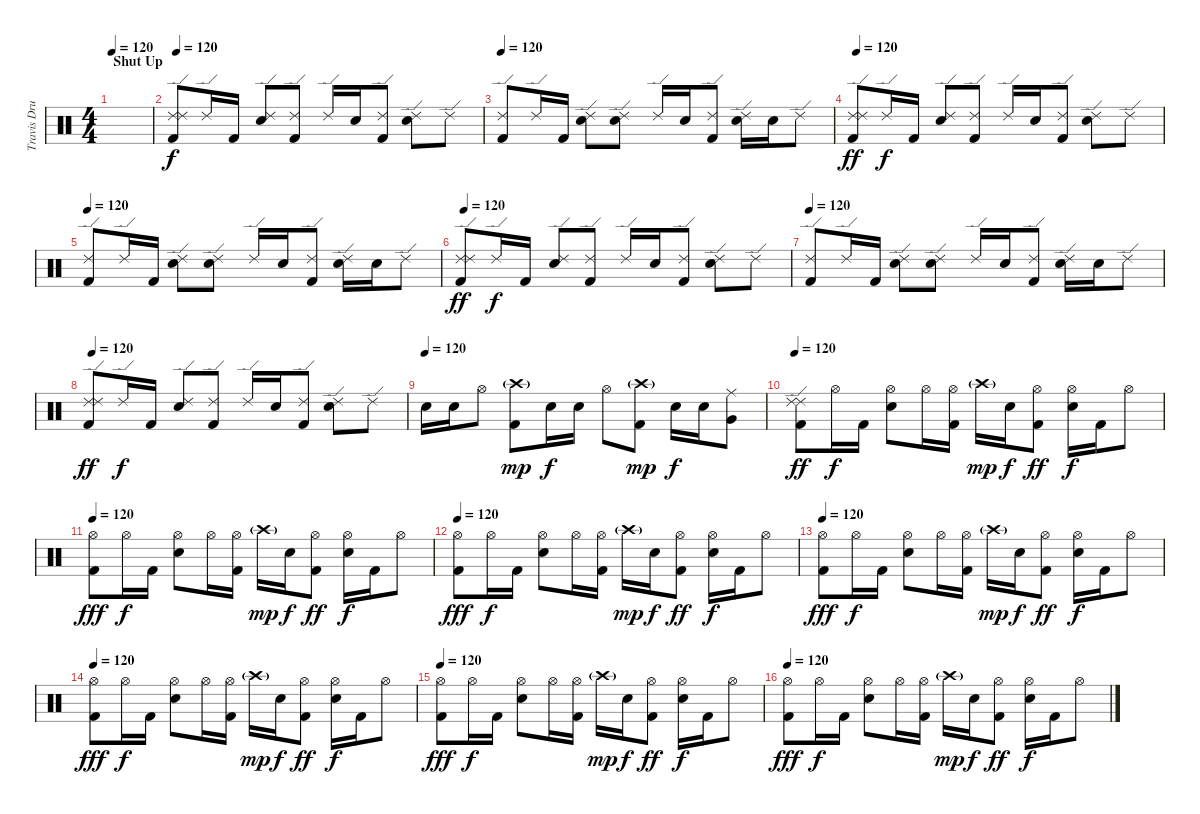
\track ("Travis Drums" "Travis Dru") {instrument percussion}
\staff {score}
\articulation defaults
\ts (4 4)
\section ("" "Shut Up")
\tempo 120
\clef neutral
\ks c
|
\tempo 120
("Ride (edge) 2" "Ride (edge) 2" "Kick (hit) 2").8 "Ride (edge) 2".16{dy f} "Kick (hit) 2".16 ("Ride (edge) 2" "Electric Snare (hit)").8 ("Ride (edge) 2" "Kick (hit) 2").8 "Ride (edge) 2".16 "Electric Snare (hit)".16 ("Ride (edge) 2" "Kick (hit) 2").8 ("Ride (edge) 2" "Electric Snare (hit)").8 "Ride (edge) 2".8 |
\tempo 120
("Ride (edge) 2" "Kick (hit) 2").8 "Ride (edge) 2".16 "Kick (hit) 2".16 ("Ride (edge) 2" "Electric Snare (hit)").8 ("Ride (edge) 2" "Electric Snare (hit)").8 "Ride (edge) 2".16 "Electric Snare (hit)".16 ("Ride (edge) 2" "Kick (hit) 2").8 ("Ride (edge) 2" "Electric Snare (hit)").16 "Electric Snare (hit)".16 "Ride (edge) 2".8 |
\tempo 120
("Ride (edge) 2" "Ride (edge) 2" "Kick (hit) 2").8{dy ff} "Ride (edge) 2".16{dy f} "Kick (hit) 2".16 ("Ride (edge) 2" "Electric Snare (hit)").8 ("Ride (edge) 2" "Kick (hit) 2").8 "Ride (edge) 2".16 "Electric Snare (hit)".16 ("Ride (edge) 2" "Kick (hit) 2").8 ("Ride (edge) 2" "Electric Snare (hit)").8 "Ride (edge) 2".8 |
\tempo 120
("Ride (edge) 2" "Kick (hit) 2").8 "Ride (edge) 2".16 "Kick (hit) 2".16 ("Ride (edge) 2" "Electric Snare (hit)").8 ("Ride (edge) 2" "Electric Snare (hit)").8 "Ride (edge) 2".16 "Electric Snare (hit)".16 ("Ride (edge) 2" "Kick (hit) 2").8 ("Ride (edge) 2" "Electric Snare (hit)").16 "Electric Snare (hit)".16 "Ride (edge) 2".8 |
\tempo 120
("Ride (edge) 2" "Ride (edge) 2" "Kick (hit) 2").8{dy ff} "Ride (edge) 2".16{dy f} "Kick (hit) 2".16 ("Ride (edge) 2" "Electric Snare (hit)").8 ("Ride (edge) 2" "Kick (hit) 2").8 "Ride (edge) 2".16 "Electric Snare (hit)".16 ("Ride (edge) 2" "Kick (hit) 2").8 ("Ride (edge) 2" "Electric Snare (hit)").8 "Ride (edge) 2".8 |
\tempo 120
("Ride (edge) 2" "Kick (hit) 2").8 "Ride (edge) 2".16 "Kick (hit) 2".16 ("Ride (edge) 2" "Electric Snare (hit)").8 ("Ride (edge) 2" "Electric Snare (hit)").8 "Ride (edge) 2".16 "Electric Snare (hit)".16 ("Ride (edge) 2" "Kick (hit) 2").8 ("Ride (edge) 2" "Electric Snare (hit)").16 "Electric Snare (hit)".16 "Ride (edge) 2".8 |
\tempo 120
("Ride (edge) 2" "Ride (edge) 2" "Kick (hit) 2").8{dy ff} "Ride (edge) 2".16{dy f} "Kick (hit) 2".16 ("Ride (edge) 2" "Electric Snare (hit)").8 ("Ride (edge) 2" "Kick (hit) 2").8 "Ride (edge) 2".16 "Electric Snare (hit)".16 ("Ride (edge) 2" "Kick (hit) 2").8 ("Ride (edge) 2" "Electric Snare (hit)").8 "Ride (edge) 2".8 |
\tempo (120)
"Electric Snare (hit)".16 "Electric Snare (hit)".16 "Hi-Hat (open)".8 ("Crash high (hit)"{g} "Kick (hit) 2").8{dy mp} "Electric Snare (hit)".16{dy f} "Electric Snare (hit)".16 "Hi-Hat (open)".8 ("Crash high (hit)"{g} "Kick (hit) 2").8{dy mp} "Electric Snare (hit)".16{dy f} "Electric Snare (hit)".16 ("Ride (middle)" "Very Low Tom (hit)").8 |
\tempo 120
("Ride (edge) 2" "Ride (edge) 2" "Kick (hit) 2").8{dy ff} "Hi-Hat (open)".16{dy f} "Kick (hit) 2".16 ("Hi-Hat (open)" "Electric Snare (hit)").8 "Hi-Hat (open)".16 ("Hi-Hat (open)" "Kick (hit) 2").16 "Crash high (hit)"{g}.16{dy mp} "Electric Snare (hit)".16{dy f} ("Hi-Hat (open)" "Kick (hit) 2").8{dy ff} ("Hi-Hat (open)" "Electric Snare (hit)").16{dy f} "Kick (hit) 2".16 "Hi-Hat (open)".8 |
\tempo 120
("Hi-Hat (open)" "Kick (hit) 2").8{dy fff} "Hi-Hat (open)".16{dy f} "Kick (hit) 2".16 ("Hi-Hat (open)" "Electric Snare (hit)").8 "Hi-Hat (open)".16 ("Hi-Hat (open)" "Kick (hit) 2").16 "Crash high (hit)"{g}.16{dy mp} "Electric Snare (hit)".16{dy f} ("Hi-Hat (open)" "Kick (hit) 2").8{dy ff} ("Hi-Hat (open)" "Electric Snare (hit)").16{dy f} "Kick (hit) 2".16 "Hi-Hat (open)".8 |
\tempo 120
("Hi-Hat (open)" "Kick (hit) 2").8{dy fff} "Hi-Hat (open)".16{dy f} "Kick (hit) 2".16 ("Hi-Hat (open)" "Electric Snare (hit)").8 "Hi-Hat (open)".16 ("Hi-Hat (open)" "Kick (hit) 2").16 "Crash high (hit)"{g}.16{dy mp} "Electric Snare (hit)".16{dy f} ("Hi-Hat (open)" "Kick (hit) 2").8{dy ff} ("Hi-Hat (open)" "Electric Snare (hit)").16{dy f} "Kick (hit) 2".16 "Hi-Hat (open)".8 |
\tempo 120
("Hi-Hat (open)" "Kick (hit) 2").8{dy fff} "Hi-Hat (open)".16{dy f} "Kick (hit) 2".16 ("Hi-Hat (open)" "Electric Snare (hit)").8 "Hi-Hat (open)".16 ("Hi-Hat (open)" "Kick (hit) 2").16 "Crash high (hit)"{g}.16{dy mp} "Electric Snare (hit)".16{dy f} ("Hi-Hat (open)" "Kick (hit) 2").8{dy ff} ("Hi-Hat (open)" "Electric Snare (hit)").16{dy f} "Kick (hit) 2".16 "Hi-Hat (open)".8 |
\tempo 120
("Hi-Hat (open)" "Kick (hit) 2").8{dy fff} "Hi-Hat (open)".16{dy f} "Kick (hit) 2".16 ("Hi-Hat (open)" "Electric Snare (hit)").8 "Hi-Hat (open)".16 ("Hi-Hat (open)" "Kick (hit) 2").16 "Crash high (hit)"{g}.16{dy mp} "Electric Snare (hit)".16{dy f} ("Hi-Hat (open)" "Kick (hit) 2").8{dy ff} ("Hi-Hat (open)" "Electric Snare (hit)").16{dy f} "Kick (hit) 2".16 "Hi-Hat (open)".8 |
\tempo 120
("Hi-Hat (open)" "Kick (hit) 2").8{dy fff} "Hi-Hat (open)".16{dy f} "Kick (hit) 2".16 ("Hi-Hat (open)" "Electric Snare (hit)").8 "Hi-Hat (open)".16 ("Hi-Hat (open)" "Kick (hit) 2").16 "Crash high (hit)"{g}.16{dy mp} "Electric Snare (hit)".16{dy f} ("Hi-Hat (open)" "Kick (hit) 2").8{dy ff} ("Hi-Hat (open)" "Electric Snare (hit)").16{dy f} "Kick (hit) 2".16 "Hi-Hat (open)".8 |
\tempo 120
("Hi-Hat (open)" "Kick (hit) 2").8{dy fff} "Hi-Hat (open)".16{dy f} "Kick (hit) 2".16 ("Hi-Hat (open)" "Electric Snare (hit)").8 "Hi-Hat (open)".16 ("Hi-Hat (open)" "Kick (hit) 2").16 "Crash high (hit)"{g}.16{dy mp} "Electric Snare (hit)".16{dy f} ("Hi-Hat (open)" "Kick (hit) 2").8{dy ff} ("Hi-Hat (open)" "Electric Snare (hit)").16{dy f} "Kick (hit) 2".16 "Hi-Hat (open)".8
